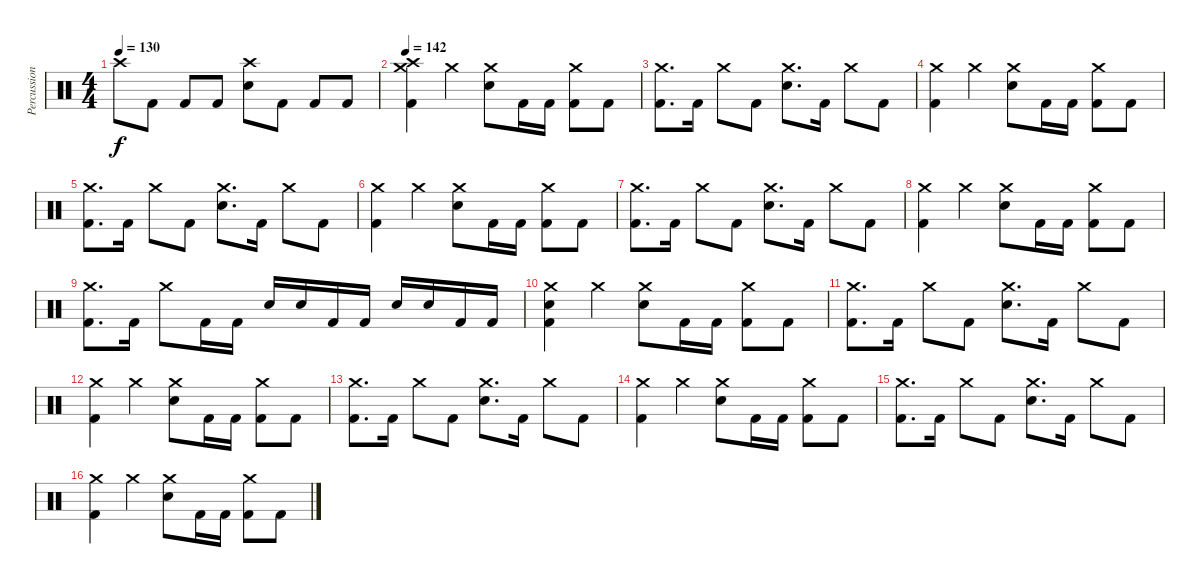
\track ("Percussion" "Percussion") {instrument percussion}
\staff {score}
\articulation defaults
\ts (4 4)
\tempo 130
\clef neutral
\ks c "Crash high (hit)".8{dy f} "Kick (hit) 2".8 "Kick (hit) 2".8 "Kick (hit) 2".8
("Crash high (hit)" "Electric Snare (hit)").8 "Kick (hit) 2".8 "Kick (hit) 2".8 "Kick (hit) 2".8 |
\tempo 142
("Crash high (hit)" "Crash medium (hit)" "Kick (hit) 2").4 "Crash medium (hit)".4 ("Crash medium (hit)" "Electric Snare (hit)").8 "Kick (hit) 2".16 "Kick (hit) 2".16 ("Crash medium (hit)" "Kick (hit) 2").8 "Kick (hit) 2".8 |
("Crash medium (hit)" "Kick (hit) 2").8{d} "Kick (hit) 2".16 "Crash medium (hit)".8 "Kick (hit) 2".8 ("Crash medium (hit)" "Electric Snare (hit)").8{d} "Kick (hit) 2".16 "Crash medium (hit)".8 "Kick (hit) 2".8 |
("Crash medium (hit)" "Kick (hit) 2").4 "Crash medium (hit)".4 ("Crash medium (hit)" "Electric Snare (hit)").8 "Kick (hit) 2".16 "Kick (hit) 2".16 ("Crash medium (hit)" "Kick (hit) 2").8 "Kick (hit) 2".8 |
("Crash medium (hit)" "Kick (hit) 2").8{d} "Kick (hit) 2".16 "Crash medium (hit)".8 "Kick (hit) 2".8 ("Crash medium (hit)" "Electric Snare (hit)").8{d} "Kick (hit) 2".16 "Crash medium (hit)".8 "Kick (hit) 2".8 |
("Crash medium (hit)" "Kick (hit) 2").4 "Crash medium (hit)".4 ("Crash medium (hit)" "Electric Snare (hit)").8 "Kick (hit) 2".16 "Kick (hit) 2".16 ("Crash medium (hit)" "Kick (hit) 2").8 "Kick (hit) 2".8 |
("Crash medium (hit)" "Kick (hit) 2").8{d} "Kick (hit) 2".16 "Crash medium (hit)".8 "Kick (hit) 2".8 ("Crash medium (hit)" "Electric Snare (hit)").8{d} "Kick (hit) 2".16 "Crash medium (hit)".8 "Kick (hit) 2".8 |
("Crash medium (hit)" "Kick (hit) 2").4 "Crash medium (hit)".4 ("Crash medium (hit)" "Electric Snare (hit)").8 "Kick (hit) 2".16 "Kick (hit) 2".16 ("Crash medium (hit)" "Kick (hit) 2").8 "Kick (hit) 2".8 |
("Crash medium (hit)" "Kick (hit) 2").8{d} "Kick (hit) 2".16 "Crash medium (hit)".8 "Kick (hit) 2".16 "Kick (hit) 2".16 "Electric Snare (hit)".16 "Electric Snare (hit)".16 "Kick (hit) 2".16 "Kick (hit) 2".16 "Electric Snare (hit)".16 "Electric Snare (hit)".16 "Kick (hit) 2".16 "Kick (hit) 2".16 |
("Crash medium (hit)" "Electric Snare (hit)" "Kick (hit) 2").4 "Crash medium (hit)".4 ("Crash medium (hit)" "Electric Snare (hit)").8 "Kick (hit) 2".16 "Kick (hit) 2".16 ("Crash medium (hit)" "Kick (hit) 2").8 "Kick (hit) 2".8 |
("Crash medium (hit)" "Kick (hit) 2").8{d} "Kick (hit) 2".16 "Crash medium (hit)".8 "Kick (hit) 2".8 ("Crash medium (hit)" "Electric Snare (hit)").8{d} "Kick (hit) 2".16 "Crash medium (hit)".8 "Kick (hit) 2".8 |
("Crash medium (hit)" "Kick (hit) 2").4 "Crash medium (hit)".4 ("Crash medium (hit)" "Electric Snare (hit)").8 "Kick (hit) 2".16 "Kick (hit) 2".16 ("Crash medium (hit)" "Kick (hit) 2").8 "Kick (hit) 2".8 |
("Crash medium (hit)" "Kick (hit) 2").8{d} "Kick (hit) 2".16 "Crash medium (hit)".8 "Kick (hit) 2".8 ("Crash medium (hit)" "Electric Snare (hit)").8{d} "Kick (hit) 2".16 "Crash medium (hit)".8 "Kick (hit) 2".8 |
("Crash medium (hit)" "Kick (hit) 2").4 "Crash medium (hit)".4 ("Crash medium (hit)" "Electric Snare (hit)").8 "Kick (hit) 2".16 "Kick (hit) 2".16 ("Crash medium (hit)" "Kick (hit) 2").8 "Kick (hit) 2".8 |
("Crash medium (hit)" "Kick (hit) 2").8{d} "Kick (hit) 2".16 "Crash medium (hit)".8 "Kick (hit) 2".8 ("Crash medium (hit)" "Electric Snare (hit)").8{d} "Kick (hit) 2".16 "Crash medium (hit)".8 "Kick (hit) 2".8 |
("Crash medium (hit)" "Kick (hit) 2").4 "Crash medium (hit)".4 ("Crash medium (hit)" "Electric Snare (hit)").8 "Kick (hit) 2".16 "Kick (hit) 2".16 ("Crash medium (hit)" "Kick (hit) 2").8 "Kick (hit) 2".8
